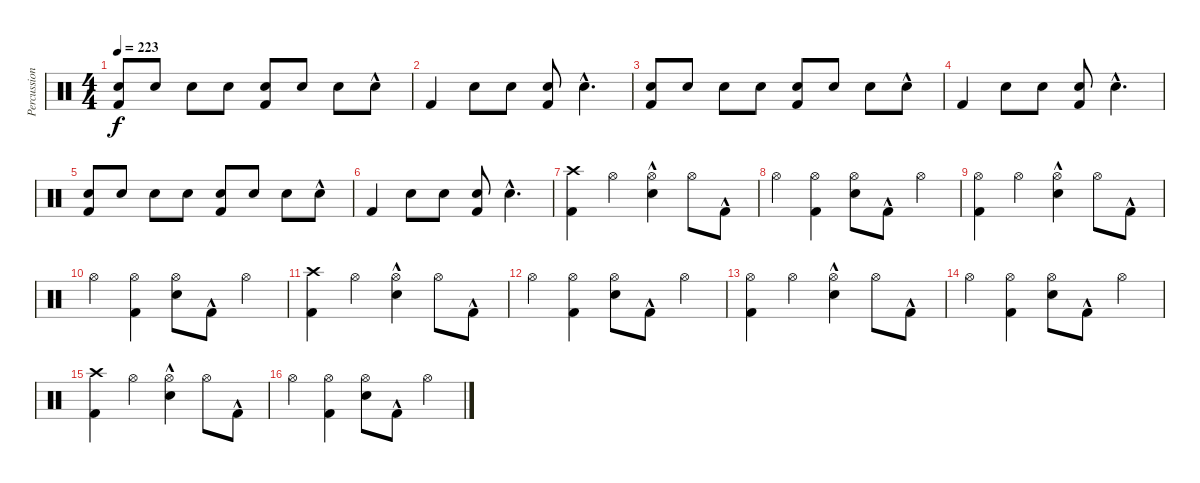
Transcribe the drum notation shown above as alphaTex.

\track ("Percussion" "Percussion") {instrument percussion}
\staff {score}
\articulation defaults
\ts (4 4)
\tempo 223
\clef neutral
\ks c
("Kick (hit) 2" "Electric Snare (hit)").8{dy f} "Electric Snare (hit)".8 "Electric Snare (hit)".8 "Electric Snare (hit)".8 ("Kick (hit) 2" "Electric Snare (hit)").8 "Electric Snare (hit)".8 "Electric Snare (hit)".8 "Electric Snare (hit)"{hac}.8 |
"Kick (hit) 2".4 "Electric Snare (hit)".8 "Electric Snare (hit)".8 ("Kick (hit) 2" "Electric Snare (hit)").8 "Electric Snare (hit)"{hac}.4{d} |
("Kick (hit) 2" "Electric Snare (hit)").8 "Electric Snare (hit)".8 "Electric Snare (hit)".8 "Electric Snare (hit)".8 ("Kick (hit) 2" "Electric Snare (hit)").8 "Electric Snare (hit)".8 "Electric Snare (hit)".8 "Electric Snare (hit)"{hac}.8 |
"Kick (hit) 2".4 "Electric Snare (hit)".8 "Electric Snare (hit)".8 ("Kick (hit) 2" "Electric Snare (hit)").8 "Electric Snare (hit)"{hac}.4{d} |
("Kick (hit) 2" "Electric Snare (hit)").8 "Electric Snare (hit)".8 "Electric Snare (hit)".8 "Electric Snare (hit)".8 ("Kick (hit) 2" "Electric Snare (hit)").8 "Electric Snare (hit)".8 "Electric Snare (hit)".8 "Electric Snare (hit)"{hac}.8 |
"Kick (hit) 2".4 "Electric Snare (hit)".8 "Electric Snare (hit)".8 ("Kick (hit) 2" "Electric Snare (hit)").8 "Electric Snare (hit)"{hac}.4{d} |
("Crash high (hit)" "Kick (hit) 2").4 "Hi-Hat (open)".4 ("Hi-Hat (open)" "Electric Snare (hit)"{hac}).4 "Hi-Hat (open)".8 "Kick (hit) 2"{hac}.8 |
"Hi-Hat (open)".4 ("Hi-Hat (open)" "Kick (hit) 2").4 ("Hi-Hat (open)" "Electric Snare (hit)").8 "Kick (hit) 2"{hac}.8 "Hi-Hat (open)".4 |
("Hi-Hat (open)" "Kick (hit) 2").4 "Hi-Hat (open)".4 ("Hi-Hat (open)" "Electric Snare (hit)"{hac}).4 "Hi-Hat (open)".8 "Kick (hit) 2"{hac}.8 |
"Hi-Hat (open)".4 ("Hi-Hat (open)" "Kick (hit) 2").4 ("Hi-Hat (open)" "Electric Snare (hit)").8 "Kick (hit) 2"{hac}.8 "Hi-Hat (open)".4 |
("Crash high (hit)" "Kick (hit) 2").4 "Hi-Hat (open)".4 ("Hi-Hat (open)" "Electric Snare (hit)"{hac}).4 "Hi-Hat (open)".8 "Kick (hit) 2"{hac}.8 |
"Hi-Hat (open)".4 ("Hi-Hat (open)" "Kick (hit) 2").4 ("Hi-Hat (open)" "Electric Snare (hit)").8 "Kick (hit) 2"{hac}.8 "Hi-Hat (open)".4 |
("Hi-Hat (open)" "Kick (hit) 2").4 "Hi-Hat (open)".4 ("Hi-Hat (open)" "Electric Snare (hit)"{hac}).4 "Hi-Hat (open)".8 "Kick (hit) 2"{hac}.8 |
"Hi-Hat (open)".4 ("Hi-Hat (open)" "Kick (hit) 2").4 ("Hi-Hat (open)" "Electric Snare (hit)").8 "Kick (hit) 2"{hac}.8 "Hi-Hat (open)".4 |
("Crash high (hit)" "Kick (hit) 2").4 "Hi-Hat (open)".4 ("Hi-Hat (open)" "Electric Snare (hit)"{hac}).4 "Hi-Hat (open)".8 "Kick (hit) 2"{hac}.8 |
"Hi-Hat (open)".4 ("Hi-Hat (open)" "Kick (hit) 2").4 ("Hi-Hat (open)" "Electric Snare (hit)").8 "Kick (hit) 2"{hac}.8 "Hi-Hat (open)".4
